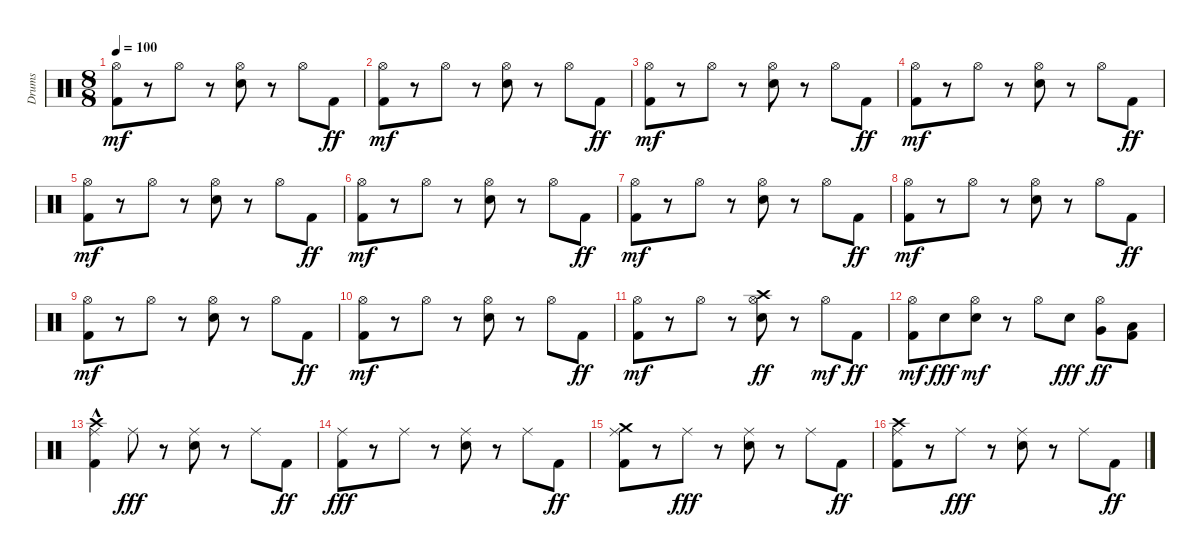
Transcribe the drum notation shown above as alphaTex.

\track ("Drums" "Drums") {instrument percussion}
\staff {score}
\articulation defaults
\ts (8 8)
\tempo 100
\clef neutral
\ks c
("Kick (hit) 2" "Hi-Hat (open)").8{dy mf} r.8 "Hi-Hat (open)".8 r.8 ("Snare (hit) 2" "Hi-Hat (open)").8 r.8 "Hi-Hat (open)".8 "Kick (hit) 2".8{dy ff} |
("Kick (hit) 2" "Hi-Hat (open)").8{dy mf} r.8 "Hi-Hat (open)".8 r.8 ("Snare (hit) 2" "Hi-Hat (open)").8 r.8 "Hi-Hat (open)".8 "Kick (hit) 2".8{dy ff} |
("Kick (hit) 2" "Hi-Hat (open)").8{dy mf} r.8 "Hi-Hat (open)".8 r.8 ("Snare (hit) 2" "Hi-Hat (open)").8 r.8 "Hi-Hat (open)".8 "Kick (hit) 2".8{dy ff} |
("Kick (hit) 2" "Hi-Hat (open)").8{dy mf} r.8 "Hi-Hat (open)".8 r.8 ("Snare (hit) 2" "Hi-Hat (open)").8 r.8 "Hi-Hat (open)".8 "Kick (hit) 2".8{dy ff} |
("Kick (hit) 2" "Hi-Hat (open)").8{dy mf} r.8 "Hi-Hat (open)".8 r.8 ("Snare (hit) 2" "Hi-Hat (open)").8 r.8 "Hi-Hat (open)".8 "Kick (hit) 2".8{dy ff} |
("Kick (hit) 2" "Hi-Hat (open)").8{dy mf} r.8 "Hi-Hat (open)".8 r.8 ("Snare (hit) 2" "Hi-Hat (open)").8 r.8 "Hi-Hat (open)".8 "Kick (hit) 2".8{dy ff} |
("Kick (hit) 2" "Hi-Hat (open)").8{dy mf} r.8 "Hi-Hat (open)".8 r.8 ("Snare (hit) 2" "Hi-Hat (open)").8 r.8 "Hi-Hat (open)".8 "Kick (hit) 2".8{dy ff} |
("Kick (hit) 2" "Hi-Hat (open)").8{dy mf} r.8 "Hi-Hat (open)".8 r.8 ("Snare (hit) 2" "Hi-Hat (open)").8 r.8 "Hi-Hat (open)".8 "Kick (hit) 2".8{dy ff} |
("Kick (hit) 2" "Hi-Hat (open)").8{dy mf} r.8 "Hi-Hat (open)".8 r.8 ("Snare (hit) 2" "Hi-Hat (open)").8 r.8 "Hi-Hat (open)".8 "Kick (hit) 2".8{dy ff} |
("Kick (hit) 2" "Hi-Hat (open)").8{dy mf} r.8 "Hi-Hat (open)".8 r.8 ("Snare (hit) 2" "Hi-Hat (open)").8 r.8 "Hi-Hat (open)".8 "Kick (hit) 2".8{dy ff} |
("Kick (hit) 2" "Hi-Hat (open)").8{dy mf} r.8 "Hi-Hat (open)".8 r.8 ("Snare (hit) 2" "Hi-Hat (open)" "Crash high (hit)").8{dy ff} r.8 "Hi-Hat (open)".8{dy mf} "Kick (hit) 2".8{dy ff} |
("Kick (hit) 2" "Hi-Hat (open)").8{dy mf} "Snare (hit) 2".8{dy fff} ("Snare (hit) 2" "Hi-Hat (open)").8{dy mf} r.8 "Hi-Hat (open)".8 "Snare (hit) 2".8{dy fff} ("Hi-Hat (open)" "Very Low Tom (hit)").8{dy ff} ("Kick (hit) 2" "Low Floor Tom (hit)").8 |
("Kick (hit) 2" "Ride (middle)" "Crash high (hit)"{hac}).4 "Ride (middle)".8{dy fff} r.8 ("Snare (hit) 2" "Ride (middle)").8 r.8 "Ride (middle)".8 "Kick (hit) 2".8{dy ff} |
("Kick (hit) 2" "Ride (middle)").8{dy fff} r.8 "Ride (middle)".8 r.8 ("Snare (hit) 2" "Ride (middle)").8 r.8 "Ride (middle)".8 "Kick (hit) 2".8{dy ff} |
("Kick (hit) 2" "Ride (middle)" "Crash medium (hit)").8 r.8 "Ride (middle)".8{dy fff} r.8 ("Snare (hit) 2" "Ride (middle)").8 r.8 "Ride (middle)".8 "Kick (hit) 2".8{dy ff} |
("Kick (hit) 2" "Ride (middle)" "Crash high (hit)").8 r.8 "Ride (middle)".8{dy fff} r.8 ("Snare (hit) 2" "Ride (middle)").8 r.8 "Ride (middle)".8 "Kick (hit) 2".8{dy ff}
